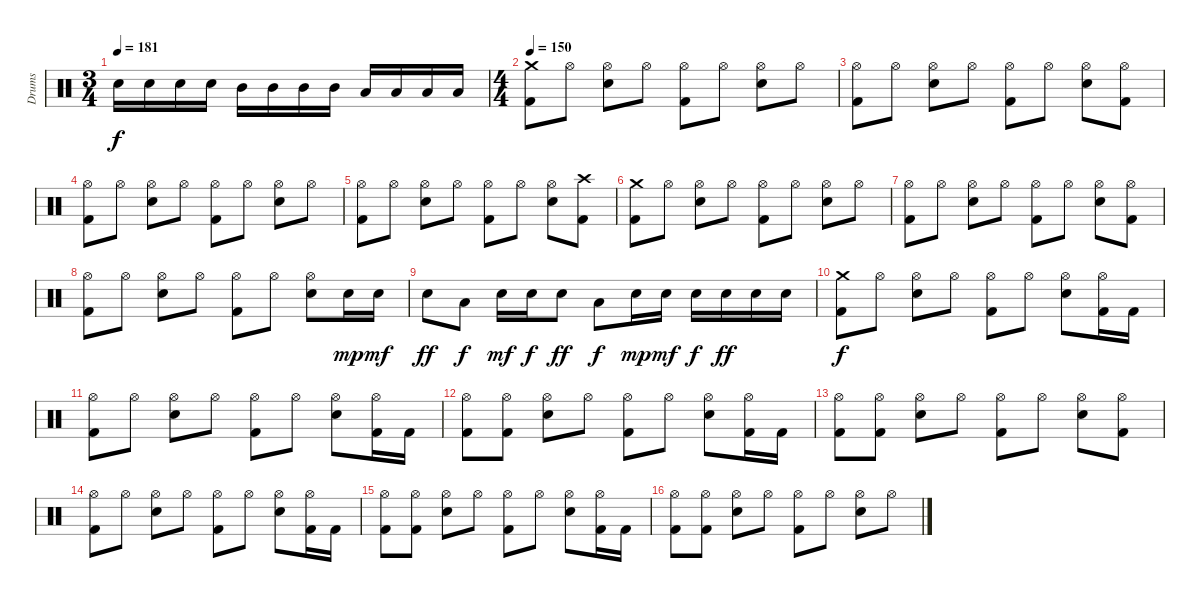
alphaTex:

\track ("Drums" "Drums") {instrument percussion}
\staff {score}
\articulation defaults
\ts (3 4)
\tempo 181
\clef neutral
\ks c "Electric Snare (hit)".16{dy f} "Electric Snare (hit)".16 "Electric Snare (hit)".16 "Electric Snare (hit)".16 "Mid Tom (hit)".16 "Mid Tom (hit)".16 "Mid Tom (hit)".16 "Mid Tom (hit)".16 "Low Tom (hit)".16 "Low Tom (hit)".16 "Low Tom (hit)".16 "Low Tom (hit)".16
|
\ts (4 4)
\tempo 150
("Crash medium (hit)" "Kick (hit) 2").8 "Hi-Hat (open)".8 ("Hi-Hat (open)" "Electric Snare (hit)").8 "Hi-Hat (open)".8 ("Hi-Hat (open)" "Kick (hit) 2").8 "Hi-Hat (open)".8 ("Hi-Hat (open)" "Electric Snare (hit)").8 "Hi-Hat (open)".8 |
("Hi-Hat (open)" "Kick (hit) 2").8 "Hi-Hat (open)".8 ("Hi-Hat (open)" "Electric Snare (hit)").8 "Hi-Hat (open)".8 ("Hi-Hat (open)" "Kick (hit) 2").8 "Hi-Hat (open)".8 ("Hi-Hat (open)" "Electric Snare (hit)").8 ("Hi-Hat (open)" "Kick (hit) 2").8 |
("Hi-Hat (open)" "Kick (hit) 2").8 "Hi-Hat (open)".8 ("Hi-Hat (open)" "Electric Snare (hit)").8 "Hi-Hat (open)".8 ("Hi-Hat (open)" "Kick (hit) 2").8 "Hi-Hat (open)".8 ("Hi-Hat (open)" "Electric Snare (hit)").8 "Hi-Hat (open)".8 |
("Hi-Hat (open)" "Kick (hit) 2").8 "Hi-Hat (open)".8 ("Hi-Hat (open)" "Electric Snare (hit)").8 "Hi-Hat (open)".8 ("Hi-Hat (open)" "Kick (hit) 2").8 "Hi-Hat (open)".8 ("Hi-Hat (open)" "Electric Snare (hit)").8 ("Crash high (hit)" "Kick (hit) 2").8 |
("Crash medium (hit)" "Kick (hit) 2").8 "Hi-Hat (open)".8 ("Hi-Hat (open)" "Electric Snare (hit)").8 "Hi-Hat (open)".8 ("Hi-Hat (open)" "Kick (hit) 2").8 "Hi-Hat (open)".8 ("Hi-Hat (open)" "Electric Snare (hit)").8 "Hi-Hat (open)".8 |
("Hi-Hat (open)" "Kick (hit) 2").8 "Hi-Hat (open)".8 ("Hi-Hat (open)" "Electric Snare (hit)").8 "Hi-Hat (open)".8 ("Hi-Hat (open)" "Kick (hit) 2").8 "Hi-Hat (open)".8 ("Hi-Hat (open)" "Electric Snare (hit)").8 ("Hi-Hat (open)" "Kick (hit) 2").8 |
("Hi-Hat (open)" "Kick (hit) 2").8 "Hi-Hat (open)".8 ("Hi-Hat (open)" "Electric Snare (hit)").8 "Hi-Hat (open)".8 ("Hi-Hat (open)" "Kick (hit) 2").8 "Hi-Hat (open)".8 ("Hi-Hat (open)" "Electric Snare (hit)").8 "Electric Snare (hit)".16{dy mp} "Electric Snare (hit)".16{dy mf} |
"Electric Snare (hit)".8{dy ff} "Low Floor Tom (hit)".8{dy f} "Electric Snare (hit)".16{dy mf} "Electric Snare (hit)".16{dy f} "Electric Snare (hit)".8{dy ff} "Low Floor Tom (hit)".8{dy f} "Electric Snare (hit)".16{dy mp} "Electric Snare (hit)".16{dy mf} "Electric Snare (hit)".16{dy f} "Electric Snare (hit)".16{dy ff} "Electric Snare (hit)".16 "Electric Snare (hit)".16 |
("Crash medium (hit)" "Kick (hit) 2").8{dy f} "Hi-Hat (open)".8 ("Hi-Hat (open)" "Electric Snare (hit)").8 "Hi-Hat (open)".8 ("Hi-Hat (open)" "Kick (hit) 2").8 "Hi-Hat (open)".8 ("Hi-Hat (open)" "Electric Snare (hit)").8 ("Hi-Hat (open)" "Kick (hit) 2").16 "Kick (hit) 2".16 |
("Hi-Hat (open)" "Kick (hit) 2").8 "Hi-Hat (open)".8 ("Hi-Hat (open)" "Electric Snare (hit)").8 "Hi-Hat (open)".8 ("Hi-Hat (open)" "Kick (hit) 2").8 "Hi-Hat (open)".8 ("Hi-Hat (open)" "Electric Snare (hit)").8 ("Hi-Hat (open)" "Kick (hit) 2").16 "Kick (hit) 2".16 |
("Hi-Hat (open)" "Kick (hit) 2").8 ("Hi-Hat (open)" "Kick (hit) 2").8 ("Hi-Hat (open)" "Electric Snare (hit)").8 "Hi-Hat (open)".8 ("Hi-Hat (open)" "Kick (hit) 2").8 "Hi-Hat (open)".8 ("Hi-Hat (open)" "Electric Snare (hit)").8 ("Hi-Hat (open)" "Kick (hit) 2").16 "Kick (hit) 2".16 |
("Hi-Hat (open)" "Kick (hit) 2").8 ("Hi-Hat (open)" "Kick (hit) 2").8 ("Hi-Hat (open)" "Electric Snare (hit)").8 "Hi-Hat (open)".8 ("Hi-Hat (open)" "Kick (hit) 2").8 "Hi-Hat (open)".8 ("Hi-Hat (open)" "Electric Snare (hit)").8 ("Hi-Hat (open)" "Kick (hit) 2").8 |
("Hi-Hat (open)" "Kick (hit) 2").8 "Hi-Hat (open)".8 ("Hi-Hat (open)" "Electric Snare (hit)").8 "Hi-Hat (open)".8 ("Hi-Hat (open)" "Kick (hit) 2").8 "Hi-Hat (open)".8 ("Hi-Hat (open)" "Electric Snare (hit)").8 ("Hi-Hat (open)" "Kick (hit) 2").16 "Kick (hit) 2".16 |
("Hi-Hat (open)" "Kick (hit) 2").8 ("Hi-Hat (open)" "Kick (hit) 2").8 ("Hi-Hat (open)" "Electric Snare (hit)").8 "Hi-Hat (open)".8 ("Hi-Hat (open)" "Kick (hit) 2").8 "Hi-Hat (open)".8 ("Hi-Hat (open)" "Electric Snare (hit)").8 ("Hi-Hat (open)" "Kick (hit) 2").16 "Kick (hit) 2".16 |
("Hi-Hat (open)" "Kick (hit) 2").8 ("Hi-Hat (open)" "Kick (hit) 2").8 ("Hi-Hat (open)" "Electric Snare (hit)").8 "Hi-Hat (open)".8 ("Hi-Hat (open)" "Kick (hit) 2").8 "Hi-Hat (open)".8 ("Hi-Hat (open)" "Electric Snare (hit)").8 "Hi-Hat (open)".8
